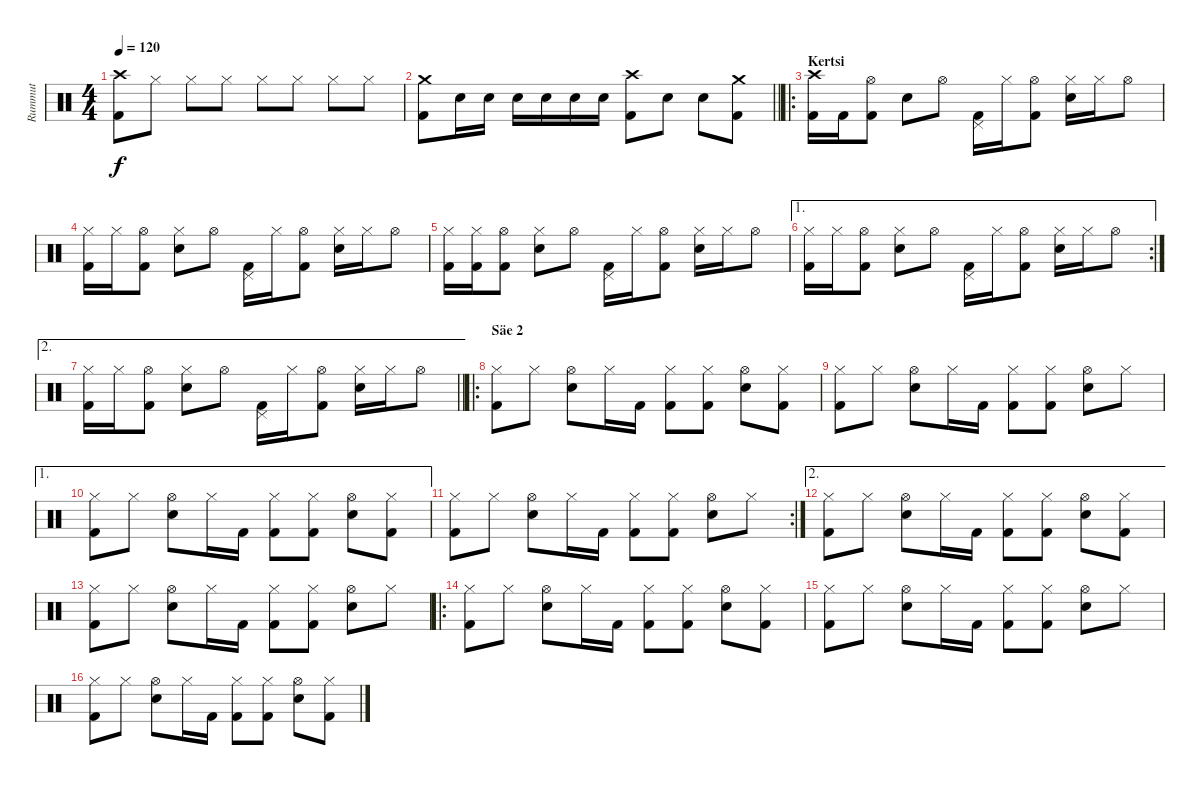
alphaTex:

\track ("Rummut" "Rummut") {instrument percussion}
\staff {score}
\articulation defaults
\ts (4 4)
\tempo 120
\clef neutral
\ks c
("Crash high (hit)" "Kick (hit) 2").8{dy f} "Hi-Hat (closed)".8 "Hi-Hat (closed)".8 "Hi-Hat (closed)".8 "Hi-Hat (closed)".8 "Hi-Hat (closed)".8 "Hi-Hat (closed)".8 "Hi-Hat (closed)".8 |
\barLineRight lightlight
("Kick (hit) 2" "Crash medium (hit)").8 "Snare (hit) 2".16 "Snare (hit) 2".16 "Snare (hit) 2".16 "Snare (hit) 2".16 "Snare (hit) 2".16 "Snare (hit) 2".16 ("Kick (hit) 2" "Crash high (hit)").8 "Snare (hit) 2".8 "Snare (hit) 2".8 ("Kick (hit) 2" "Crash medium (hit)").8 |
\ro
\section ("" "Kertsi")
("Crash high (hit)" "Kick (hit) 2").16 "Kick (hit) 2".16 ("Hi-Hat (open)" "Kick (hit) 2").8 "Electric Snare (hit)".8 "Hi-Hat (open)".8 ("Pedal Hi-Hat (hit)" "Kick (hit) 2").16 "Hi-Hat (closed)".16 ("Hi-Hat (open)" "Kick (hit) 2").8 ("Hi-Hat (closed)" "Electric Snare (hit)").16 "Hi-Hat (closed)".16 "Hi-Hat (open)".8 |
("Hi-Hat (closed)" "Kick (hit) 2").16 "Hi-Hat (closed)".16 ("Hi-Hat (open)" "Kick (hit) 2").8 ("Hi-Hat (closed)" "Electric Snare (hit)").8 "Hi-Hat (open)".8 ("Pedal Hi-Hat (hit)" "Kick (hit) 2").16 "Hi-Hat (closed)".16 ("Hi-Hat (open)" "Kick (hit) 2").8 ("Hi-Hat (closed)" "Electric Snare (hit)").16 "Hi-Hat (closed)".16 "Hi-Hat (open)".8 |
("Hi-Hat (closed)" "Kick (hit) 2").16 ("Hi-Hat (closed)" "Kick (hit) 2").16 ("Hi-Hat (open)" "Kick (hit) 2").8 ("Hi-Hat (closed)" "Electric Snare (hit)").8 "Hi-Hat (open)".8 ("Pedal Hi-Hat (hit)" "Kick (hit) 2").16 "Hi-Hat (closed)".16 ("Hi-Hat (open)" "Kick (hit) 2").8 ("Hi-Hat (closed)" "Electric Snare (hit)").16 "Hi-Hat (closed)".16 "Hi-Hat (open)".8 |
\ae 1
\rc 2
("Hi-Hat (closed)" "Kick (hit) 2").16 "Hi-Hat (closed)".16 ("Hi-Hat (open)" "Kick (hit) 2").8 ("Hi-Hat (closed)" "Electric Snare (hit)").8 "Hi-Hat (open)".8 ("Pedal Hi-Hat (hit)" "Kick (hit) 2").16 "Hi-Hat (closed)".16 ("Hi-Hat (open)" "Kick (hit) 2").8 ("Hi-Hat (closed)" "Electric Snare (hit)").16 "Hi-Hat (closed)".16 "Hi-Hat (open)".8 |
\ae 2
\barLineRight lightlight
("Hi-Hat (closed)" "Kick (hit) 2").16 "Hi-Hat (closed)".16 ("Hi-Hat (open)" "Kick (hit) 2").8 ("Hi-Hat (closed)" "Electric Snare (hit)").8 "Hi-Hat (open)".8 ("Pedal Hi-Hat (hit)" "Kick (hit) 2").16 "Hi-Hat (closed)".16 ("Hi-Hat (open)" "Kick (hit) 2").8 ("Hi-Hat (closed)" "Electric Snare (hit)").16 "Hi-Hat (closed)".16 "Hi-Hat (open)".8 |
\ro
\section ("" "Säe 2")
("Hi-Hat (closed)" "Kick (hit) 2").8 "Hi-Hat (closed)".8 ("Hi-Hat (open)" "Snare (hit) 2").8 "Hi-Hat (closed)".16 "Kick (hit) 2".16 ("Hi-Hat (closed)" "Kick (hit) 2").8 ("Hi-Hat (closed)" "Kick (hit) 2").8 ("Hi-Hat (open)" "Snare (hit) 2").8 ("Hi-Hat (closed)" "Kick (hit) 2").8 |
("Hi-Hat (closed)" "Kick (hit) 2").8 "Hi-Hat (closed)".8 ("Hi-Hat (open)" "Snare (hit) 2").8 "Hi-Hat (closed)".16 "Kick (hit) 2".16 ("Hi-Hat (closed)" "Kick (hit) 2").8 ("Hi-Hat (closed)" "Kick (hit) 2").8 ("Hi-Hat (open)" "Snare (hit) 2").8 "Hi-Hat (closed)".8 |
\ae 1
("Hi-Hat (closed)" "Kick (hit) 2").8 "Hi-Hat (closed)".8 ("Hi-Hat (open)" "Snare (hit) 2").8 "Hi-Hat (closed)".16 "Kick (hit) 2".16 ("Hi-Hat (closed)" "Kick (hit) 2").8 ("Hi-Hat (closed)" "Kick (hit) 2").8 ("Hi-Hat (open)" "Snare (hit) 2").8 ("Hi-Hat (closed)" "Kick (hit) 2").8 |
\rc 2
("Hi-Hat (closed)" "Kick (hit) 2").8 "Hi-Hat (closed)".8 ("Hi-Hat (open)" "Snare (hit) 2").8 "Hi-Hat (closed)".16 "Kick (hit) 2".16 ("Hi-Hat (closed)" "Kick (hit) 2").8 ("Hi-Hat (closed)" "Kick (hit) 2").8 ("Hi-Hat (open)" "Snare (hit) 2").8 "Hi-Hat (closed)".8 |
\ae 2
("Hi-Hat (closed)" "Kick (hit) 2").8 "Hi-Hat (closed)".8 ("Hi-Hat (open)" "Snare (hit) 2").8 "Hi-Hat (closed)".16 "Kick (hit) 2".16 ("Hi-Hat (closed)" "Kick (hit) 2").8 ("Hi-Hat (closed)" "Kick (hit) 2").8 ("Hi-Hat (open)" "Snare (hit) 2").8 ("Hi-Hat (closed)" "Kick (hit) 2").8 |
("Hi-Hat (closed)" "Kick (hit) 2").8 "Hi-Hat (closed)".8 ("Hi-Hat (open)" "Snare (hit) 2").8 "Hi-Hat (closed)".16 "Kick (hit) 2".16 ("Hi-Hat (closed)" "Kick (hit) 2").8 ("Hi-Hat (closed)" "Kick (hit) 2").8 ("Hi-Hat (open)" "Snare (hit) 2").8 "Hi-Hat (closed)".8 |
\ro
("Hi-Hat (closed)" "Kick (hit) 2").8 "Hi-Hat (closed)".8 ("Hi-Hat (open)" "Snare (hit) 2").8 "Hi-Hat (closed)".16 "Kick (hit) 2".16 ("Hi-Hat (closed)" "Kick (hit) 2").8 ("Hi-Hat (closed)" "Kick (hit) 2").8 ("Hi-Hat (open)" "Snare (hit) 2").8 ("Hi-Hat (closed)" "Kick (hit) 2").8 |
("Hi-Hat (closed)" "Kick (hit) 2").8 "Hi-Hat (closed)".8 ("Hi-Hat (open)" "Snare (hit) 2").8 "Hi-Hat (closed)".16 "Kick (hit) 2".16 ("Hi-Hat (closed)" "Kick (hit) 2").8 ("Hi-Hat (closed)" "Kick (hit) 2").8 ("Hi-Hat (open)" "Snare (hit) 2").8 "Hi-Hat (closed)".8 |
("Hi-Hat (closed)" "Kick (hit) 2").8 "Hi-Hat (closed)".8 ("Hi-Hat (open)" "Snare (hit) 2").8 "Hi-Hat (closed)".16 "Kick (hit) 2".16 ("Hi-Hat (closed)" "Kick (hit) 2").8 ("Hi-Hat (closed)" "Kick (hit) 2").8 ("Hi-Hat (open)" "Snare (hit) 2").8 ("Hi-Hat (closed)" "Kick (hit) 2").8
